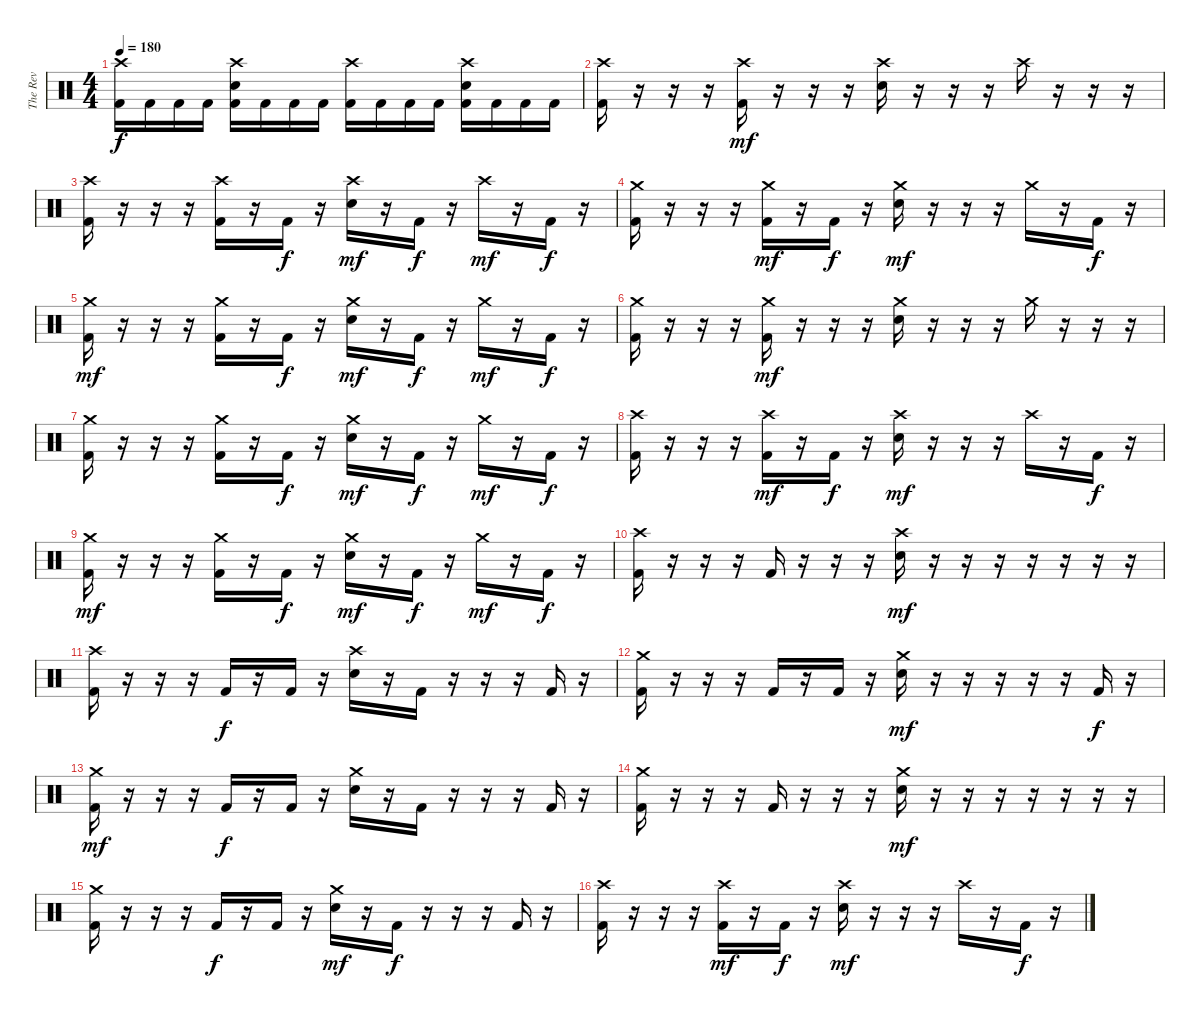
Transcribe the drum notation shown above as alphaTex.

\track ("The Rev" "The Rev") {instrument percussion}
\staff {score}
\articulation defaults
\ts (4 4)
\tempo 180
\clef neutral
\ks c
("Crash high (hit)" "Kick (hit) 2").16{dy f} "Kick (hit) 2".16 "Kick (hit) 2".16 "Kick (hit) 2".16 ("Crash high (hit)" "Snare (hit) 2" "Kick (hit) 2").16 "Kick (hit) 2".16 "Kick (hit) 2".16 "Kick (hit) 2".16 ("Crash high (hit)" "Kick (hit) 2").16 "Kick (hit) 2".16 "Kick (hit) 2".16 "Kick (hit) 2".16 ("Crash high (hit)" "Snare (hit) 2" "Kick (hit) 2").16 "Kick (hit) 2".16 "Kick (hit) 2".16 "Kick (hit) 2".16 |
("Crash high (hit)" "Kick (hit) 2").16 r.16 r.16 r.16 ("Crash high (hit)" "Kick (hit) 2").16{dy mf} r.16 r.16 r.16 ("Crash high (hit)" "Snare (hit) 2").16 r.16 r.16 r.16 "Crash high (hit)".16 r.16 r.16 r.16 |
("Crash high (hit)" "Kick (hit) 2").16 r.16 r.16 r.16 ("Crash high (hit)" "Kick (hit) 2").16 r.16 "Kick (hit) 2".16{dy f} r.16 ("Crash high (hit)" "Snare (hit) 2").16{dy mf} r.16 "Kick (hit) 2".16{dy f} r.16 "Crash high (hit)".16{dy mf} r.16 "Kick (hit) 2".16{dy f} r.16 |
("Crash medium (hit)" "Kick (hit) 2").16 r.16 r.16 r.16 ("Crash medium (hit)" "Kick (hit) 2").16{dy mf} r.16 "Kick (hit) 2".16{dy f} r.16 ("Crash medium (hit)" "Snare (hit) 2").16{dy mf} r.16 r.16 r.16 "Crash medium (hit)".16 r.16 "Kick (hit) 2".16{dy f} r.16 |
("Crash medium (hit)" "Kick (hit) 2").16{dy mf} r.16 r.16 r.16 ("Crash medium (hit)" "Kick (hit) 2").16 r.16 "Kick (hit) 2".16{dy f} r.16 ("Crash medium (hit)" "Snare (hit) 2").16{dy mf} r.16 "Kick (hit) 2".16{dy f} r.16 "Crash medium (hit)".16{dy mf} r.16 "Kick (hit) 2".16{dy f} r.16 |
("Crash medium (hit)" "Kick (hit) 2").16 r.16 r.16 r.16 ("Crash medium (hit)" "Kick (hit) 2").16{dy mf} r.16 r.16 r.16 ("Crash medium (hit)" "Snare (hit) 2").16 r.16 r.16 r.16 "Crash medium (hit)".16 r.16 r.16 r.16 |
("Crash medium (hit)" "Kick (hit) 2").16 r.16 r.16 r.16 ("Crash medium (hit)" "Kick (hit) 2").16 r.16 "Kick (hit) 2".16{dy f} r.16 ("Crash medium (hit)" "Snare (hit) 2").16{dy mf} r.16 "Kick (hit) 2".16{dy f} r.16 "Crash medium (hit)".16{dy mf} r.16 "Kick (hit) 2".16{dy f} r.16 |
("Crash high (hit)" "Kick (hit) 2").16 r.16 r.16 r.16 ("Crash high (hit)" "Kick (hit) 2").16{dy mf} r.16 "Kick (hit) 2".16{dy f} r.16 ("Crash high (hit)" "Snare (hit) 2").16{dy mf} r.16 r.16 r.16 "Crash high (hit)".16 r.16 "Kick (hit) 2".16{dy f} r.16 |
("Crash medium (hit)" "Kick (hit) 2").16{dy mf} r.16 r.16 r.16 ("Crash medium (hit)" "Kick (hit) 2").16 r.16 "Kick (hit) 2".16{dy f} r.16 ("Crash medium (hit)" "Snare (hit) 2").16{dy mf} r.16 "Kick (hit) 2".16{dy f} r.16 "Crash medium (hit)".16{dy mf} r.16 "Kick (hit) 2".16{dy f} r.16 |
("Crash high (hit)" "Kick (hit) 2").16 r.16 r.16 r.16 "Kick (hit) 2".16 r.16 r.16 r.16 ("Crash high (hit)" "Snare (hit) 2").16{dy mf} r.16 r.16 r.16 r.16 r.16 r.16 r.16 |
("Crash high (hit)" "Kick (hit) 2").16 r.16 r.16 r.16 "Kick (hit) 2".16{dy f} r.16 "Kick (hit) 2".16 r.16 ("Crash high (hit)" "Snare (hit) 2").16 r.16 "Kick (hit) 2".16 r.16 r.16 r.16 "Kick (hit) 2".16 r.16 |
("Crash medium (hit)" "Kick (hit) 2").16 r.16 r.16 r.16 "Kick (hit) 2".16 r.16 "Kick (hit) 2".16 r.16 ("Crash medium (hit)" "Snare (hit) 2").16{dy mf} r.16 r.16 r.16 r.16 r.16 "Kick (hit) 2".16{dy f} r.16 |
("Crash medium (hit)" "Kick (hit) 2").16{dy mf} r.16 r.16 r.16 "Kick (hit) 2".16{dy f} r.16 "Kick (hit) 2".16 r.16 ("Crash medium (hit)" "Snare (hit) 2").16 r.16 "Kick (hit) 2".16 r.16 r.16 r.16 "Kick (hit) 2".16 r.16 |
("Crash medium (hit)" "Kick (hit) 2").16 r.16 r.16 r.16 "Kick (hit) 2".16 r.16 r.16 r.16 ("Crash medium (hit)" "Snare (hit) 2").16{dy mf} r.16 r.16 r.16 r.16 r.16 r.16 r.16 |
("Crash medium (hit)" "Kick (hit) 2").16 r.16 r.16 r.16 "Kick (hit) 2".16{dy f} r.16 "Kick (hit) 2".16 r.16 ("Crash medium (hit)" "Snare (hit) 2").16{dy mf} r.16 "Kick (hit) 2".16{dy f} r.16 r.16 r.16 "Kick (hit) 2".16 r.16 |
("Crash high (hit)" "Kick (hit) 2").16 r.16 r.16 r.16 ("Crash high (hit)" "Kick (hit) 2").16{dy mf} r.16 "Kick (hit) 2".16{dy f} r.16 ("Crash high (hit)" "Snare (hit) 2").16{dy mf} r.16 r.16 r.16 "Crash high (hit)".16 r.16 "Kick (hit) 2".16{dy f} r.16
